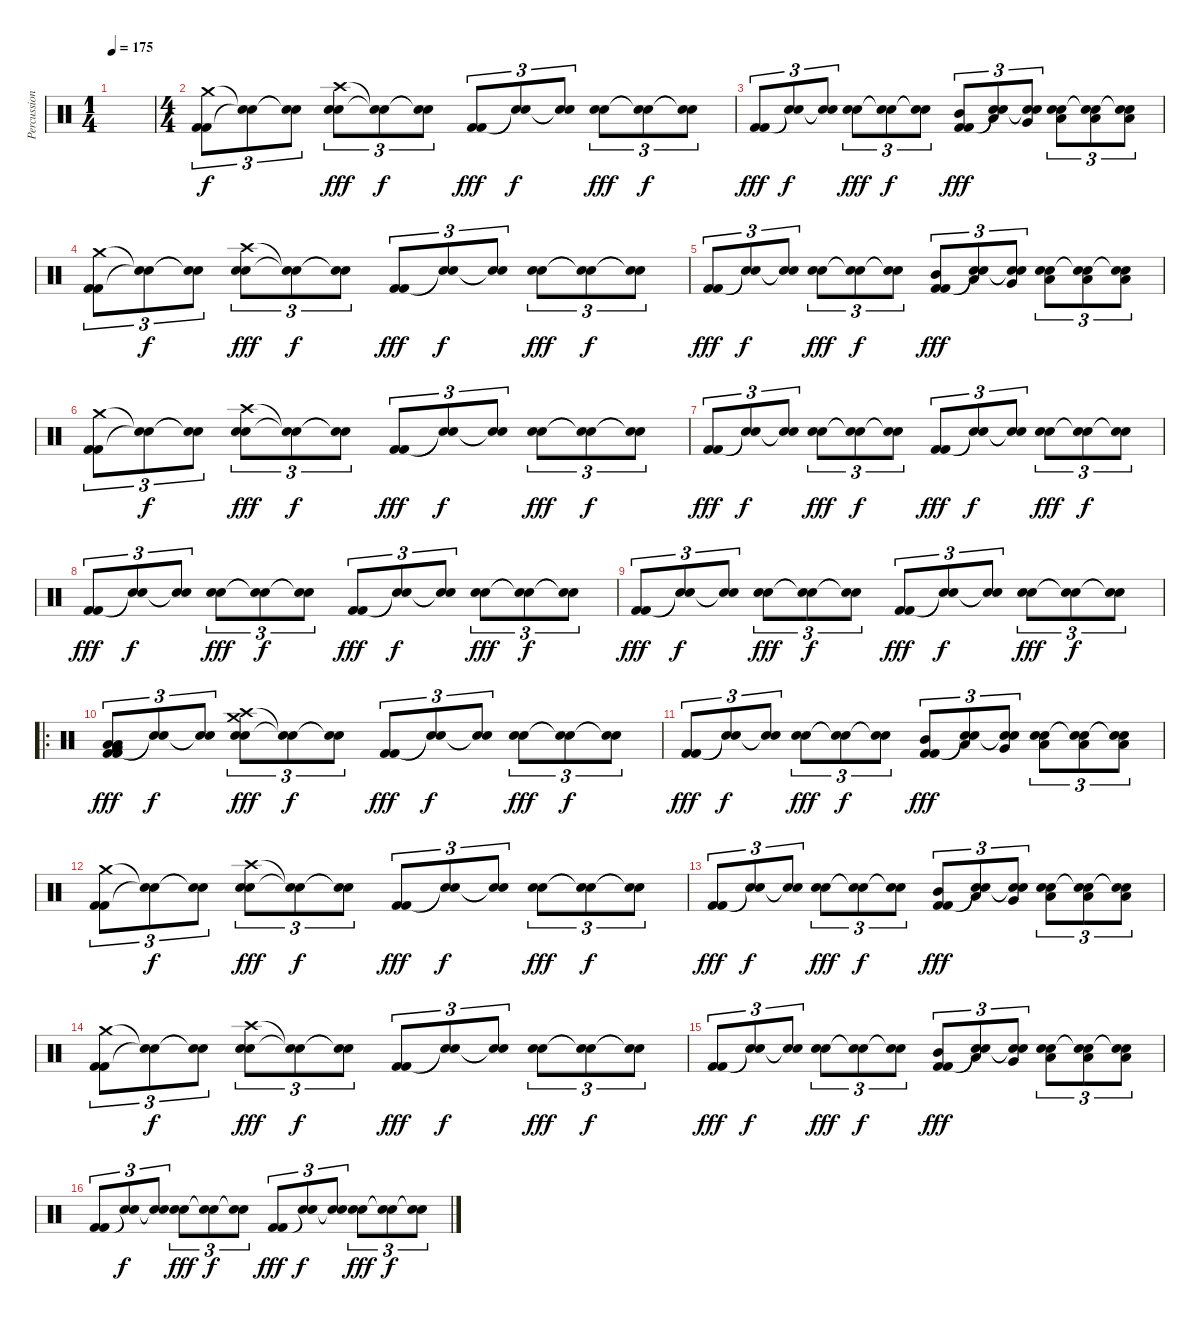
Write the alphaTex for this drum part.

\track ("Percussion" "Percussion") {instrument percussion}
\staff {score}
\articulation defaults
\ts (1 4)
\tempo 175
\clef neutral
\ks c
|
\ts (4 4)
("Kick (hit) 2" "Crash medium (hit)" "Kick (hit) 2").8{tu (3 2)} ("Snare (hit)"{t} "Snare (hit)"{t}).8{tu (3 2) dy f} ("Snare (hit)"{t} "Snare (hit)"{t}).8{tu (3 2)} ("Electric Snare (hit)" "Crash high (hit)" "Electric Snare (hit)").8{tu (3 2) dy fff} ("Snare (hit)"{t} "Snare (hit)"{t}).8{tu (3 2) dy f} ("Snare (hit)"{t} "Snare (hit)"{t}).8{tu (3 2)} ("Kick (hit) 2" "Kick (hit) 2").8{tu (3 2) dy fff} ("Snare (hit)"{t} "Snare (hit)"{t}).8{tu (3 2) dy f} ("Snare (hit)"{t} "Snare (hit)"{t}).8{tu (3 2)} ("Electric Snare (hit)" "Electric Snare (hit)").8{tu (3 2) dy fff} ("Snare (hit)"{t} "Snare (hit)"{t}).8{tu (3 2) dy f} ("Snare (hit)"{t} "Snare (hit)"{t}).8{tu (3 2)} |
("Kick (hit) 2" "Kick (hit) 2").8{tu (3 2) dy fff} ("Snare (hit)"{t} "Snare (hit)"{t}).8{tu (3 2) dy f} ("Snare (hit)"{t} "Snare (hit)"{t}).8{tu (3 2)} ("Electric Snare (hit)" "Electric Snare (hit)").8{tu (3 2) dy fff} ("Snare (hit)"{t} "Snare (hit)"{t}).8{tu (3 2) dy f} ("Snare (hit)"{t} "Snare (hit)"{t}).8{tu (3 2)} ("Kick (hit) 2" "Mid Tom (hit)" "Kick (hit) 2").8{tu (3 2) dy fff} ("Snare (hit)"{t} "Low Tom (hit)" "Snare (hit)"{t}).8{tu (3 2)} ("Snare (hit)"{t} "Very Low Tom (hit)" "Snare (hit)"{t}).8{tu (3 2)} ("Electric Snare (hit)" "Low Floor Tom (hit)" "Electric Snare (hit)").8{tu (3 2)} ("Snare (hit)"{t} "Low Floor Tom (hit)" "Snare (hit)"{t}).8{tu (3 2)} ("Snare (hit)"{t} "Low Floor Tom (hit)" "Snare (hit)"{t}).8{tu (3 2)} |
("Kick (hit) 2" "Crash medium (hit)" "Kick (hit) 2").8{tu (3 2)} ("Snare (hit)"{t} "Snare (hit)"{t}).8{tu (3 2) dy f} ("Snare (hit)"{t} "Snare (hit)"{t}).8{tu (3 2)} ("Electric Snare (hit)" "Crash high (hit)" "Electric Snare (hit)").8{tu (3 2) dy fff} ("Snare (hit)"{t} "Snare (hit)"{t}).8{tu (3 2) dy f} ("Snare (hit)"{t} "Snare (hit)"{t}).8{tu (3 2)} ("Kick (hit) 2" "Kick (hit) 2").8{tu (3 2) dy fff} ("Snare (hit)"{t} "Snare (hit)"{t}).8{tu (3 2) dy f} ("Snare (hit)"{t} "Snare (hit)"{t}).8{tu (3 2)} ("Electric Snare (hit)" "Electric Snare (hit)").8{tu (3 2) dy fff} ("Snare (hit)"{t} "Snare (hit)"{t}).8{tu (3 2) dy f} ("Snare (hit)"{t} "Snare (hit)"{t}).8{tu (3 2)} |
("Kick (hit) 2" "Kick (hit) 2").8{tu (3 2) dy fff} ("Snare (hit)"{t} "Snare (hit)"{t}).8{tu (3 2) dy f} ("Snare (hit)"{t} "Snare (hit)"{t}).8{tu (3 2)} ("Electric Snare (hit)" "Electric Snare (hit)").8{tu (3 2) dy fff} ("Snare (hit)"{t} "Snare (hit)"{t}).8{tu (3 2) dy f} ("Snare (hit)"{t} "Snare (hit)"{t}).8{tu (3 2)} ("Kick (hit) 2" "Mid Tom (hit)" "Kick (hit) 2").8{tu (3 2) dy fff} ("Snare (hit)"{t} "Low Tom (hit)" "Snare (hit)"{t}).8{tu (3 2)} ("Snare (hit)"{t} "Very Low Tom (hit)" "Snare (hit)"{t}).8{tu (3 2)} ("Electric Snare (hit)" "Low Floor Tom (hit)" "Electric Snare (hit)").8{tu (3 2)} ("Snare (hit)"{t} "Low Floor Tom (hit)" "Snare (hit)"{t}).8{tu (3 2)} ("Snare (hit)"{t} "Low Floor Tom (hit)" "Snare (hit)"{t}).8{tu (3 2)} |
("Kick (hit) 2" "Crash medium (hit)" "Kick (hit) 2").8{tu (3 2)} ("Snare (hit)"{t} "Snare (hit)"{t}).8{tu (3 2) dy f} ("Snare (hit)"{t} "Snare (hit)"{t}).8{tu (3 2)} ("Electric Snare (hit)" "Crash high (hit)" "Electric Snare (hit)").8{tu (3 2) dy fff} ("Snare (hit)"{t} "Snare (hit)"{t}).8{tu (3 2) dy f} ("Snare (hit)"{t} "Snare (hit)"{t}).8{tu (3 2)} ("Kick (hit) 2" "Kick (hit) 2").8{tu (3 2) dy fff} ("Snare (hit)"{t} "Snare (hit)"{t}).8{tu (3 2) dy f} ("Snare (hit)"{t} "Snare (hit)"{t}).8{tu (3 2)} ("Electric Snare (hit)" "Electric Snare (hit)").8{tu (3 2) dy fff} ("Snare (hit)"{t} "Snare (hit)"{t}).8{tu (3 2) dy f} ("Snare (hit)"{t} "Snare (hit)"{t}).8{tu (3 2)} |
("Kick (hit) 2" "Kick (hit) 2").8{tu (3 2) dy fff} ("Snare (hit)"{t} "Snare (hit)"{t}).8{tu (3 2) dy f} ("Snare (hit)"{t} "Snare (hit)"{t}).8{tu (3 2)} ("Electric Snare (hit)" "Electric Snare (hit)").8{tu (3 2) dy fff} ("Snare (hit)"{t} "Snare (hit)"{t}).8{tu (3 2) dy f} ("Snare (hit)"{t} "Snare (hit)"{t}).8{tu (3 2)} ("Kick (hit) 2" "Kick (hit) 2").8{tu (3 2) dy fff} ("Snare (hit)"{t} "Snare (hit)"{t}).8{tu (3 2) dy f} ("Snare (hit)"{t} "Snare (hit)"{t}).8{tu (3 2)} ("Electric Snare (hit)" "Electric Snare (hit)").8{tu (3 2) dy fff} ("Snare (hit)"{t} "Snare (hit)"{t}).8{tu (3 2) dy f} ("Snare (hit)"{t} "Snare (hit)"{t}).8{tu (3 2)} |
("Kick (hit) 2" "Kick (hit) 2").8{tu (3 2) dy fff} ("Snare (hit)"{t} "Snare (hit)"{t}).8{tu (3 2) dy f} ("Snare (hit)"{t} "Snare (hit)"{t}).8{tu (3 2)} ("Electric Snare (hit)" "Electric Snare (hit)").8{tu (3 2) dy fff} ("Snare (hit)"{t} "Snare (hit)"{t}).8{tu (3 2) dy f} ("Snare (hit)"{t} "Snare (hit)"{t}).8{tu (3 2)} ("Kick (hit) 2" "Kick (hit) 2").8{tu (3 2) dy fff} ("Snare (hit)"{t} "Snare (hit)"{t}).8{tu (3 2) dy f} ("Snare (hit)"{t} "Snare (hit)"{t}).8{tu (3 2)} ("Electric Snare (hit)" "Electric Snare (hit)").8{tu (3 2) dy fff} ("Snare (hit)"{t} "Snare (hit)"{t}).8{tu (3 2) dy f} ("Snare (hit)"{t} "Snare (hit)"{t}).8{tu (3 2)} |
("Kick (hit) 2" "Kick (hit) 2").8{tu (3 2) dy fff} ("Snare (hit)"{t} "Snare (hit)"{t}).8{tu (3 2) dy f} ("Snare (hit)"{t} "Snare (hit)"{t}).8{tu (3 2)} ("Electric Snare (hit)" "Electric Snare (hit)").8{tu (3 2) dy fff} ("Snare (hit)"{t} "Snare (hit)"{t}).8{tu (3 2) dy f} ("Snare (hit)"{t} "Snare (hit)"{t}).8{tu (3 2)} ("Kick (hit) 2" "Kick (hit) 2").8{tu (3 2) dy fff} ("Snare (hit)"{t} "Snare (hit)"{t}).8{tu (3 2) dy f} ("Snare (hit)"{t} "Snare (hit)"{t}).8{tu (3 2)} ("Electric Snare (hit)" "Electric Snare (hit)").8{tu (3 2) dy fff} ("Snare (hit)"{t} "Snare (hit)"{t}).8{tu (3 2) dy f} ("Snare (hit)"{t} "Snare (hit)"{t}).8{tu (3 2)} |
\ro
("Kick (hit) 2" "Kick (hit) 2" "Low Tom (hit)" "Very Low Tom (hit)" "Low Floor Tom (hit)").8{tu (3 2) dy fff} ("Snare (hit)"{t} "Snare (hit)"{t}).8{tu (3 2) dy f} ("Snare (hit)"{t} "Snare (hit)"{t}).8{tu (3 2)} ("Electric Snare (hit)" "Crash high (hit)" "Electric Snare (hit)" "Crash medium (hit)").8{tu (3 2) dy fff} ("Snare (hit)"{t} "Snare (hit)"{t}).8{tu (3 2) dy f} ("Snare (hit)"{t} "Snare (hit)"{t}).8{tu (3 2)} ("Kick (hit) 2" "Kick (hit) 2").8{tu (3 2) dy fff} ("Snare (hit)"{t} "Snare (hit)"{t}).8{tu (3 2) dy f} ("Snare (hit)"{t} "Snare (hit)"{t}).8{tu (3 2)} ("Electric Snare (hit)" "Electric Snare (hit)").8{tu (3 2) dy fff} ("Snare (hit)"{t} "Snare (hit)"{t}).8{tu (3 2) dy f} ("Snare (hit)"{t} "Snare (hit)"{t}).8{tu (3 2)} |
("Kick (hit) 2" "Kick (hit) 2").8{tu (3 2) dy fff} ("Snare (hit)"{t} "Snare (hit)"{t}).8{tu (3 2) dy f} ("Snare (hit)"{t} "Snare (hit)"{t}).8{tu (3 2)} ("Electric Snare (hit)" "Electric Snare (hit)").8{tu (3 2) dy fff} ("Snare (hit)"{t} "Snare (hit)"{t}).8{tu (3 2) dy f} ("Snare (hit)"{t} "Snare (hit)"{t}).8{tu (3 2)} ("Kick (hit) 2" "Mid Tom (hit)" "Kick (hit) 2").8{tu (3 2) dy fff} ("Snare (hit)"{t} "Low Tom (hit)" "Snare (hit)"{t}).8{tu (3 2)} ("Snare (hit)"{t} "Very Low Tom (hit)" "Snare (hit)"{t}).8{tu (3 2)} ("Electric Snare (hit)" "Low Floor Tom (hit)" "Electric Snare (hit)").8{tu (3 2)} ("Snare (hit)"{t} "Low Floor Tom (hit)" "Snare (hit)"{t}).8{tu (3 2)} ("Snare (hit)"{t} "Low Floor Tom (hit)" "Snare (hit)"{t}).8{tu (3 2)} |
("Kick (hit) 2" "Crash medium (hit)" "Kick (hit) 2").8{tu (3 2)} ("Snare (hit)"{t} "Snare (hit)"{t}).8{tu (3 2) dy f} ("Snare (hit)"{t} "Snare (hit)"{t}).8{tu (3 2)} ("Electric Snare (hit)" "Crash high (hit)" "Electric Snare (hit)").8{tu (3 2) dy fff} ("Snare (hit)"{t} "Snare (hit)"{t}).8{tu (3 2) dy f} ("Snare (hit)"{t} "Snare (hit)"{t}).8{tu (3 2)} ("Kick (hit) 2" "Kick (hit) 2").8{tu (3 2) dy fff} ("Snare (hit)"{t} "Snare (hit)"{t}).8{tu (3 2) dy f} ("Snare (hit)"{t} "Snare (hit)"{t}).8{tu (3 2)} ("Electric Snare (hit)" "Electric Snare (hit)").8{tu (3 2) dy fff} ("Snare (hit)"{t} "Snare (hit)"{t}).8{tu (3 2) dy f} ("Snare (hit)"{t} "Snare (hit)"{t}).8{tu (3 2)} |
("Kick (hit) 2" "Kick (hit) 2").8{tu (3 2) dy fff} ("Snare (hit)"{t} "Snare (hit)"{t}).8{tu (3 2) dy f} ("Snare (hit)"{t} "Snare (hit)"{t}).8{tu (3 2)} ("Electric Snare (hit)" "Electric Snare (hit)").8{tu (3 2) dy fff} ("Snare (hit)"{t} "Snare (hit)"{t}).8{tu (3 2) dy f} ("Snare (hit)"{t} "Snare (hit)"{t}).8{tu (3 2)} ("Kick (hit) 2" "Mid Tom (hit)" "Kick (hit) 2").8{tu (3 2) dy fff} ("Snare (hit)"{t} "Low Tom (hit)" "Snare (hit)"{t}).8{tu (3 2)} ("Snare (hit)"{t} "Very Low Tom (hit)" "Snare (hit)"{t}).8{tu (3 2)} ("Electric Snare (hit)" "Low Floor Tom (hit)" "Electric Snare (hit)").8{tu (3 2)} ("Snare (hit)"{t} "Low Floor Tom (hit)" "Snare (hit)"{t}).8{tu (3 2)} ("Snare (hit)"{t} "Low Floor Tom (hit)" "Snare (hit)"{t}).8{tu (3 2)} |
("Kick (hit) 2" "Crash medium (hit)" "Kick (hit) 2").8{tu (3 2)} ("Snare (hit)"{t} "Snare (hit)"{t}).8{tu (3 2) dy f} ("Snare (hit)"{t} "Snare (hit)"{t}).8{tu (3 2)} ("Electric Snare (hit)" "Crash high (hit)" "Electric Snare (hit)").8{tu (3 2) dy fff} ("Snare (hit)"{t} "Snare (hit)"{t}).8{tu (3 2) dy f} ("Snare (hit)"{t} "Snare (hit)"{t}).8{tu (3 2)} ("Kick (hit) 2" "Kick (hit) 2").8{tu (3 2) dy fff} ("Snare (hit)"{t} "Snare (hit)"{t}).8{tu (3 2) dy f} ("Snare (hit)"{t} "Snare (hit)"{t}).8{tu (3 2)} ("Electric Snare (hit)" "Electric Snare (hit)").8{tu (3 2) dy fff} ("Snare (hit)"{t} "Snare (hit)"{t}).8{tu (3 2) dy f} ("Snare (hit)"{t} "Snare (hit)"{t}).8{tu (3 2)} |
("Kick (hit) 2" "Kick (hit) 2").8{tu (3 2) dy fff} ("Snare (hit)"{t} "Snare (hit)"{t}).8{tu (3 2) dy f} ("Snare (hit)"{t} "Snare (hit)"{t}).8{tu (3 2)} ("Electric Snare (hit)" "Electric Snare (hit)").8{tu (3 2) dy fff} ("Snare (hit)"{t} "Snare (hit)"{t}).8{tu (3 2) dy f} ("Snare (hit)"{t} "Snare (hit)"{t}).8{tu (3 2)} ("Kick (hit) 2" "Mid Tom (hit)" "Kick (hit) 2").8{tu (3 2) dy fff} ("Snare (hit)"{t} "Low Tom (hit)" "Snare (hit)"{t}).8{tu (3 2)} ("Snare (hit)"{t} "Very Low Tom (hit)" "Snare (hit)"{t}).8{tu (3 2)} ("Electric Snare (hit)" "Low Floor Tom (hit)" "Electric Snare (hit)").8{tu (3 2)} ("Snare (hit)"{t} "Low Floor Tom (hit)" "Snare (hit)"{t}).8{tu (3 2)} ("Snare (hit)"{t} "Low Floor Tom (hit)" "Snare (hit)"{t}).8{tu (3 2)} |
("Kick (hit) 2" "Kick (hit) 2").8{tu (3 2)} ("Snare (hit)"{t} "Snare (hit)"{t}).8{tu (3 2) dy f} ("Snare (hit)"{t} "Snare (hit)"{t}).8{tu (3 2)} ("Electric Snare (hit)" "Electric Snare (hit)").8{tu (3 2) dy fff} ("Snare (hit)"{t} "Snare (hit)"{t}).8{tu (3 2) dy f} ("Snare (hit)"{t} "Snare (hit)"{t}).8{tu (3 2)} ("Kick (hit) 2" "Kick (hit) 2").8{tu (3 2) dy fff} ("Snare (hit)"{t} "Snare (hit)"{t}).8{tu (3 2) dy f} ("Snare (hit)"{t} "Snare (hit)"{t}).8{tu (3 2)} ("Electric Snare (hit)" "Electric Snare (hit)").8{tu (3 2) dy fff} ("Snare (hit)"{t} "Snare (hit)"{t}).8{tu (3 2) dy f} ("Snare (hit)"{t} "Snare (hit)"{t}).8{tu (3 2)}
